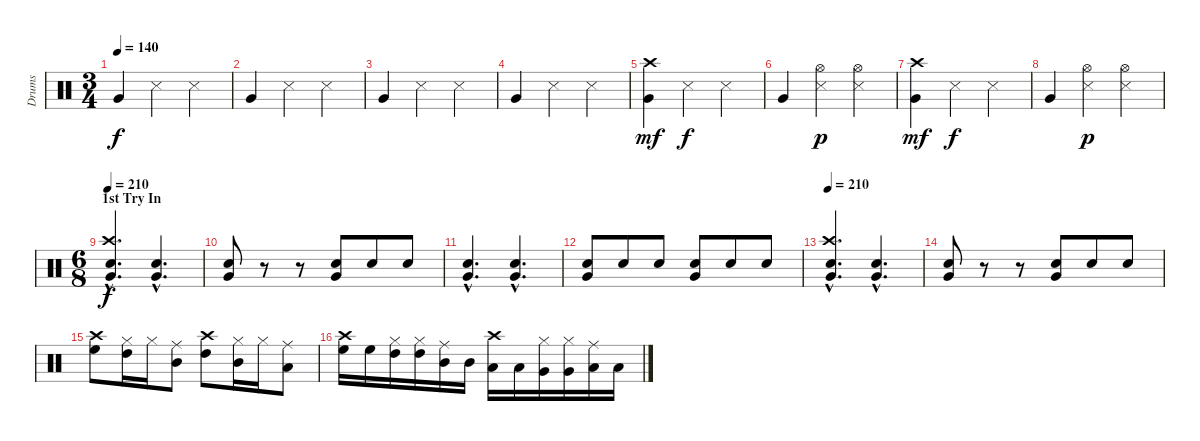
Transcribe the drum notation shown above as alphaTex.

\track ("Drums" "Drums") {instrument percussion}
\staff {score}
\articulation defaults
\ts (3 4)
\tempo 140
\clef neutral
\ks c "Very Low Tom (hit)".4{dy f} "Snare (side stick) 3".4 "Snare (side stick) 3".4
|
"Very Low Tom (hit)".4 "Snare (side stick) 3".4 "Snare (side stick) 3".4 |
"Very Low Tom (hit)".4 "Snare (side stick) 3".4 "Snare (side stick) 3".4 |
"Very Low Tom (hit)".4 "Snare (side stick) 3".4 "Snare (side stick) 3".4 |
("Crash high (hit)" "Very Low Tom (hit)").4{dy mf} "Snare (side stick) 3".4{dy f} "Snare (side stick) 3".4 |
"Very Low Tom (hit)".4 ("Hi-Hat (open)" "Snare (side stick) 3").4{dy p} ("Hi-Hat (open)" "Snare (side stick) 3").4 |
("Crash high (hit)" "Very Low Tom (hit)").4{dy mf} "Snare (side stick) 3".4{dy f} "Snare (side stick) 3".4 |
"Very Low Tom (hit)".4 ("Hi-Hat (open)" "Snare (side stick) 3").4{dy p} ("Hi-Hat (open)" "Snare (side stick) 3").4 |
\ts (6 8)
\section ("" "1st Try In")
\tempo 210
("Crash high (hit)"{hac} "Electric Snare (hit)"{hac} "Very Low Tom (hit)"{hac}).4{d dy f} ("Electric Snare (hit)"{hac} "Very Low Tom (hit)"{hac}).4{d} |
("Electric Snare (hit)" "Very Low Tom (hit)").8 r.8 r.8 ("Electric Snare (hit)" "Very Low Tom (hit)").8 "Electric Snare (hit)".8 "Electric Snare (hit)".8 |
("Electric Snare (hit)"{hac} "Very Low Tom (hit)"{hac}).4{d} ("Electric Snare (hit)"{hac} "Very Low Tom (hit)"{hac}).4{d} |
("Electric Snare (hit)" "Very Low Tom (hit)").8 "Electric Snare (hit)".8 "Electric Snare (hit)".8 ("Electric Snare (hit)" "Very Low Tom (hit)").8 "Electric Snare (hit)".8 "Electric Snare (hit)".8 |
\tempo 210
("Crash high (hit)"{hac} "Electric Snare (hit)"{hac} "Very Low Tom (hit)"{hac}).4{d} ("Electric Snare (hit)"{hac} "Very Low Tom (hit)"{hac}).4{d} |
("Electric Snare (hit)" "Very Low Tom (hit)").8 r.8 r.8 ("Electric Snare (hit)" "Very Low Tom (hit)").8 "Electric Snare (hit)".8 "Electric Snare (hit)".8 |
("Crash high (hit)" "High Floor Tom (hit)").8 ("Hi-Hat (closed)" "High Tom (hit)").16 "Hi-Hat (closed)".16 ("Ride (middle)" "Mid Tom (hit)").8 ("Crash high (hit)" "High Tom (hit)").8 ("Hi-Hat (closed)" "Mid Tom (hit)").16 "Hi-Hat (closed)".16 ("Ride (middle)" "Low Tom (hit)").8 |
("Crash high (hit)" "High Floor Tom (hit)").16 "High Floor Tom (hit)".16 ("Hi-Hat (closed)" "High Tom (hit)").16 ("Hi-Hat (closed)" "High Tom (hit)").16 ("Ride (middle)" "Mid Tom (hit)").16 "Mid Tom (hit)".16 ("Crash high (hit)" "Low Tom (hit)").16 "Low Tom (hit)".16 ("Hi-Hat (closed)" "Very Low Tom (hit)").16 ("Hi-Hat (closed)" "Very Low Tom (hit)").16 ("Ride (middle)" "Low Floor Tom (hit)").16 "Low Floor Tom (hit)".16
